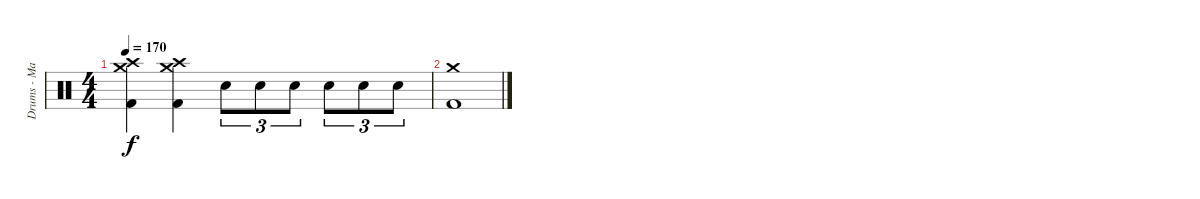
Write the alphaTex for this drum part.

\track ("Drums - Mario Duplantier" "Drums - Ma") {instrument percussion}
\staff {score}
\articulation defaults
\ts (4 4)
\tempo 170
\clef neutral
\ks c
("Crash medium (hit)" "Crash high (hit)" "Kick (hit) 2").4{dy f} ("Crash medium (hit)" "Crash high (hit)" "Kick (hit) 2").4 "Snare (hit) 2".8{tu (3 2)} "Snare (hit) 2".8{tu (3 2)} "Snare (hit) 2".8{tu (3 2)} "Snare (hit) 2".8{tu (3 2)} "Snare (hit) 2".8{tu (3 2)} "Snare (hit) 2".8{tu (3 2)} |
("Crash medium (hit)" "Kick (hit) 2").1
